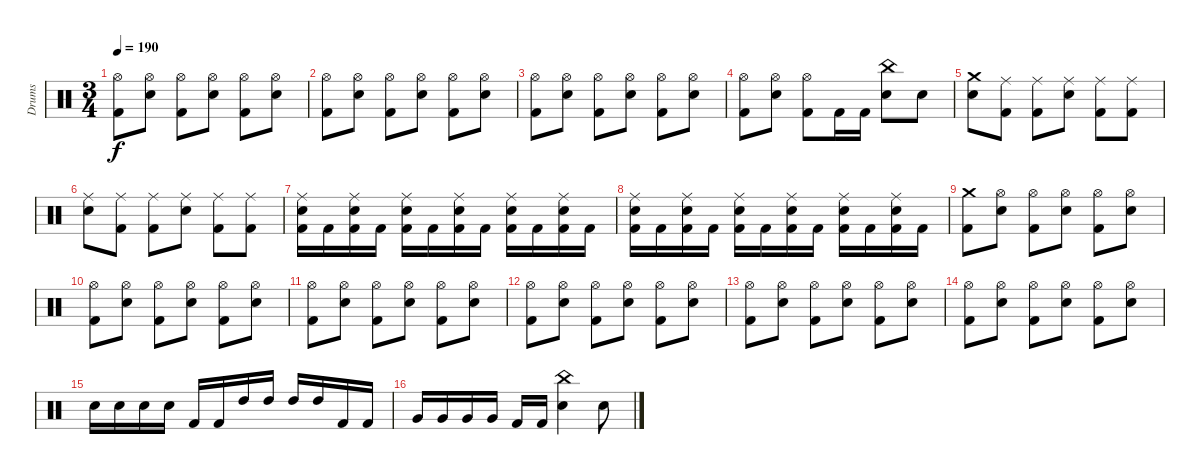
\track ("Drums" "Drums") {instrument percussion}
\staff {score}
\articulation defaults
\ts (3 4)
\tempo 190
\clef neutral
\ks c
("Hi-Hat (open)" "Kick (hit) 2").8{dy f} ("Hi-Hat (open)" "Snare (hit) 2").8 ("Hi-Hat (open)" "Kick (hit) 2").8 ("Hi-Hat (open)" "Snare (hit) 2").8 ("Hi-Hat (open)" "Kick (hit) 2").8 ("Hi-Hat (open)" "Snare (hit) 2").8 |
("Hi-Hat (open)" "Kick (hit) 2").8 ("Hi-Hat (open)" "Snare (hit) 2").8 ("Hi-Hat (open)" "Kick (hit) 2").8 ("Hi-Hat (open)" "Snare (hit) 2").8 ("Hi-Hat (open)" "Kick (hit) 2").8 ("Hi-Hat (open)" "Snare (hit) 2").8 |
("Hi-Hat (open)" "Kick (hit) 2").8 ("Hi-Hat (open)" "Snare (hit) 2").8 ("Hi-Hat (open)" "Kick (hit) 2").8 ("Hi-Hat (open)" "Snare (hit) 2").8 ("Hi-Hat (open)" "Kick (hit) 2").8 ("Hi-Hat (open)" "Snare (hit) 2").8 |
("Hi-Hat (open)" "Kick (hit) 2").8 ("Hi-Hat (open)" "Snare (hit) 2").8 ("Hi-Hat (open)" "Kick (hit) 2").8 "Kick (hit) 2".16 "Kick (hit) 2".16 ("China (hit)" "Snare (hit) 2").8 "Snare (hit) 2".8 |
("Crash medium (hit)" "Snare (hit) 2").8 ("Ride (middle)" "Kick (hit) 2").8 ("Ride (middle)" "Kick (hit) 2").8 ("Ride (middle)" "Snare (hit) 2").8 ("Ride (middle)" "Kick (hit) 2").8 ("Ride (middle)" "Kick (hit) 2").8 |
("Ride (middle)" "Snare (hit) 2").8 ("Ride (middle)" "Kick (hit) 2").8 ("Ride (middle)" "Kick (hit) 2").8 ("Ride (middle)" "Snare (hit) 2").8 ("Ride (middle)" "Kick (hit) 2").8 ("Ride (middle)" "Kick (hit) 2").8 |
("Ride (middle)" "Snare (hit) 2" "Kick (hit) 2").16 "Kick (hit) 2".16 ("Ride (middle)" "Snare (hit) 2" "Kick (hit) 2").16 "Kick (hit) 2".16 ("Ride (middle)" "Snare (hit) 2" "Kick (hit) 2").16 "Kick (hit) 2".16 ("Ride (middle)" "Snare (hit) 2" "Kick (hit) 2").16 "Kick (hit) 2".16 ("Ride (middle)" "Snare (hit) 2" "Kick (hit) 2").16 "Kick (hit) 2".16 ("Ride (middle)" "Snare (hit) 2" "Kick (hit) 2").16 "Kick (hit) 2".16 |
("Ride (middle)" "Snare (hit) 2" "Kick (hit) 2").16 "Kick (hit) 2".16 ("Ride (middle)" "Snare (hit) 2" "Kick (hit) 2").16 "Kick (hit) 2".16 ("Ride (middle)" "Snare (hit) 2" "Kick (hit) 2").16 "Kick (hit) 2".16 ("Ride (middle)" "Snare (hit) 2" "Kick (hit) 2").16 "Kick (hit) 2".16 ("Ride (middle)" "Snare (hit) 2" "Kick (hit) 2").16 "Kick (hit) 2".16 ("Ride (middle)" "Snare (hit) 2" "Kick (hit) 2").16 "Kick (hit) 2".16 |
("Crash medium (hit)" "Kick (hit) 2").8 ("Hi-Hat (open)" "Snare (hit) 2").8 ("Hi-Hat (open)" "Kick (hit) 2").8 ("Hi-Hat (open)" "Snare (hit) 2").8 ("Hi-Hat (open)" "Kick (hit) 2").8 ("Hi-Hat (open)" "Snare (hit) 2").8 |
("Hi-Hat (open)" "Kick (hit) 2").8 ("Hi-Hat (open)" "Snare (hit) 2").8 ("Hi-Hat (open)" "Kick (hit) 2").8 ("Hi-Hat (open)" "Snare (hit) 2").8 ("Hi-Hat (open)" "Kick (hit) 2").8 ("Hi-Hat (open)" "Snare (hit) 2").8 |
("Hi-Hat (open)" "Kick (hit) 2").8 ("Hi-Hat (open)" "Snare (hit) 2").8 ("Hi-Hat (open)" "Kick (hit) 2").8 ("Hi-Hat (open)" "Snare (hit) 2").8 ("Hi-Hat (open)" "Kick (hit) 2").8 ("Hi-Hat (open)" "Snare (hit) 2").8 |
("Hi-Hat (open)" "Kick (hit) 2").8 ("Hi-Hat (open)" "Snare (hit) 2").8 ("Hi-Hat (open)" "Kick (hit) 2").8 ("Hi-Hat (open)" "Snare (hit) 2").8 ("Hi-Hat (open)" "Kick (hit) 2").8 ("Hi-Hat (open)" "Snare (hit) 2").8 |
("Hi-Hat (open)" "Kick (hit) 2").8 ("Hi-Hat (open)" "Snare (hit) 2").8 ("Hi-Hat (open)" "Kick (hit) 2").8 ("Hi-Hat (open)" "Snare (hit) 2").8 ("Hi-Hat (open)" "Kick (hit) 2").8 ("Hi-Hat (open)" "Snare (hit) 2").8 |
("Hi-Hat (open)" "Kick (hit) 2").8 ("Hi-Hat (open)" "Snare (hit) 2").8 ("Hi-Hat (open)" "Kick (hit) 2").8 ("Hi-Hat (open)" "Snare (hit) 2").8 ("Hi-Hat (open)" "Kick (hit) 2").8 ("Hi-Hat (open)" "Snare (hit) 2").8 |
"Snare (hit) 2".16 "Snare (hit) 2".16 "Snare (hit) 2".16 "Snare (hit) 2".16 "Kick (hit) 2".16 "Kick (hit) 2".16 "High Tom (hit)".16 "High Tom (hit)".16 "High Tom (hit)".16 "High Tom (hit)".16 "Kick (hit) 2".16 "Kick (hit) 2".16 |
"Very Low Tom (hit)".16 "Very Low Tom (hit)".16 "Very Low Tom (hit)".16 "Very Low Tom (hit)".16 "Kick (hit) 2".16 "Kick (hit) 2".16 ("China (hit)" "Snare (hit) 2").4 "Snare (hit) 2".8
